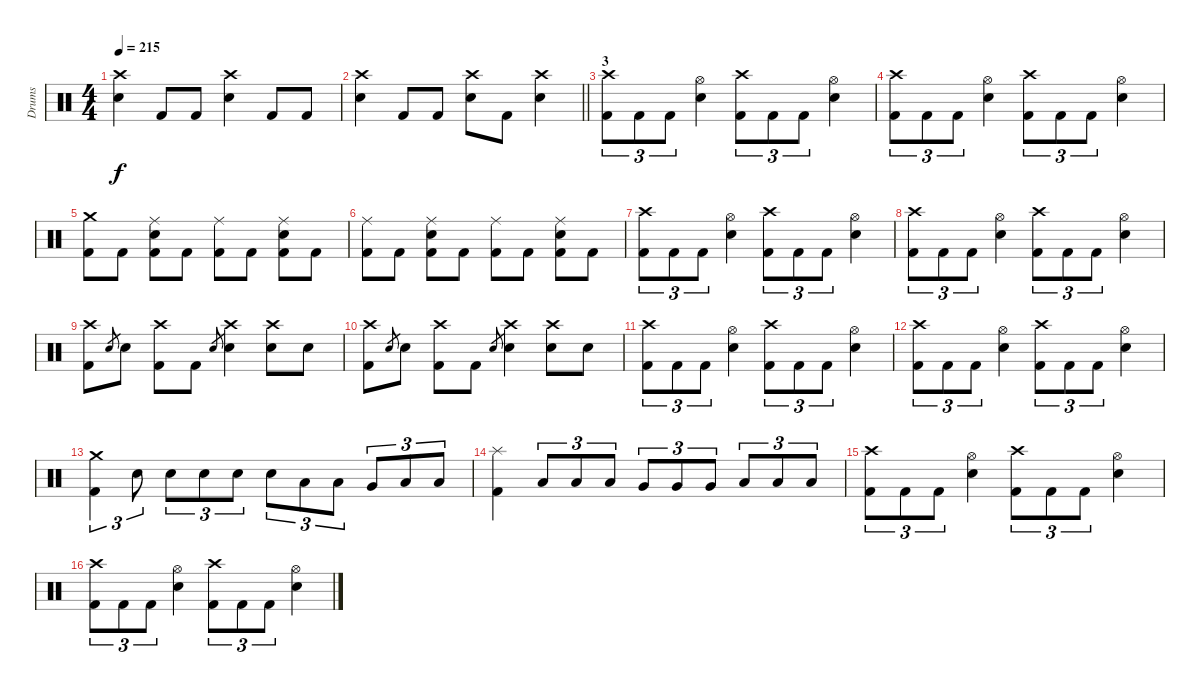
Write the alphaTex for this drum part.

\track ("Drums" "Drums") {instrument percussion}
\staff {score}
\articulation defaults
\ts (4 4)
\tempo 215
\clef neutral
\ks c
("Crash high (hit)" "Electric Snare (hit)").4{dy f} "Kick (hit) 2".8 "Kick (hit) 2".8 ("Crash high (hit)" "Electric Snare (hit)").4 "Kick (hit) 2".8 "Kick (hit) 2".8 |
\barLineRight lightlight
("Crash high (hit)" "Electric Snare (hit)").4 "Kick (hit) 2".8 "Kick (hit) 2".8 ("Crash high (hit)" "Electric Snare (hit)").8 "Kick (hit) 2".8 ("Crash high (hit)" "Electric Snare (hit)").4 |
\section ("" "3")
("Crash high (hit)" "Kick (hit) 2").8{tu (3 2)} "Kick (hit) 2".8{tu (3 2)} "Kick (hit) 2".8{tu (3 2)} ("Hi-Hat (open)" "Electric Snare (hit)").4 ("Crash high (hit)" "Kick (hit) 2").8{tu (3 2)} "Kick (hit) 2".8{tu (3 2)} "Kick (hit) 2".8{tu (3 2)} ("Hi-Hat (open)" "Electric Snare (hit)").4 |
("Crash high (hit)" "Kick (hit) 2").8{tu (3 2)} "Kick (hit) 2".8{tu (3 2)} "Kick (hit) 2".8{tu (3 2)} ("Hi-Hat (open)" "Electric Snare (hit)").4 ("Crash high (hit)" "Kick (hit) 2").8{tu (3 2)} "Kick (hit) 2".8{tu (3 2)} "Kick (hit) 2".8{tu (3 2)} ("Hi-Hat (open)" "Electric Snare (hit)").4 |
("Crash medium (hit)" "Kick (hit) 2").8 "Kick (hit) 2".8 ("Ride (middle)" "Electric Snare (hit)" "Kick (hit) 2").8 "Kick (hit) 2".8 ("Ride (middle)" "Kick (hit) 2").8 "Kick (hit) 2".8 ("Ride (middle)" "Electric Snare (hit)" "Kick (hit) 2").8 "Kick (hit) 2".8 |
("Ride (middle)" "Kick (hit) 2").8 "Kick (hit) 2".8 ("Ride (middle)" "Electric Snare (hit)" "Kick (hit) 2").8 "Kick (hit) 2".8 ("Ride (middle)" "Kick (hit) 2").8 "Kick (hit) 2".8 ("Ride (middle)" "Electric Snare (hit)" "Kick (hit) 2").8 "Kick (hit) 2".8 |
("Crash high (hit)" "Kick (hit) 2").8{tu (3 2)} "Kick (hit) 2".8{tu (3 2)} "Kick (hit) 2".8{tu (3 2)} ("Hi-Hat (open)" "Electric Snare (hit)").4 ("Crash high (hit)" "Kick (hit) 2").8{tu (3 2)} "Kick (hit) 2".8{tu (3 2)} "Kick (hit) 2".8{tu (3 2)} ("Hi-Hat (open)" "Electric Snare (hit)").4 |
("Crash high (hit)" "Kick (hit) 2").8{tu (3 2)} "Kick (hit) 2".8{tu (3 2)} "Kick (hit) 2".8{tu (3 2)} ("Hi-Hat (open)" "Electric Snare (hit)").4 ("Crash high (hit)" "Kick (hit) 2").8{tu (3 2)} "Kick (hit) 2".8{tu (3 2)} "Kick (hit) 2".8{tu (3 2)} ("Hi-Hat (open)" "Electric Snare (hit)").4 |
("Crash high (hit)" "Kick (hit) 2").8 "Electric Snare (hit)".8{gr} "Electric Snare (hit)".8 ("Crash high (hit)" "Kick (hit) 2").8 "Kick (hit) 2".8 "Electric Snare (hit)".8{gr} ("Crash high (hit)" "Electric Snare (hit)").4 ("Crash high (hit)" "Electric Snare (hit)").8 "Electric Snare (hit)".8 |
("Crash high (hit)" "Kick (hit) 2").8 "Electric Snare (hit)".8{gr} "Electric Snare (hit)".8 ("Crash high (hit)" "Kick (hit) 2").8 "Kick (hit) 2".8 "Electric Snare (hit)".8{gr} ("Crash high (hit)" "Electric Snare (hit)").4 ("Crash high (hit)" "Electric Snare (hit)").8 "Electric Snare (hit)".8 |
("Crash high (hit)" "Kick (hit) 2").8{tu (3 2)} "Kick (hit) 2".8{tu (3 2)} "Kick (hit) 2".8{tu (3 2)} ("Hi-Hat (open)" "Electric Snare (hit)").4 ("Crash high (hit)" "Kick (hit) 2").8{tu (3 2)} "Kick (hit) 2".8{tu (3 2)} "Kick (hit) 2".8{tu (3 2)} ("Hi-Hat (open)" "Electric Snare (hit)").4 |
("Crash high (hit)" "Kick (hit) 2").8{tu (3 2)} "Kick (hit) 2".8{tu (3 2)} "Kick (hit) 2".8{tu (3 2)} ("Hi-Hat (open)" "Electric Snare (hit)").4 ("Crash high (hit)" "Kick (hit) 2").8{tu (3 2)} "Kick (hit) 2".8{tu (3 2)} "Kick (hit) 2".8{tu (3 2)} ("Hi-Hat (open)" "Electric Snare (hit)").4 |
("Crash medium (hit)" "Kick (hit) 2").4{tu (3 2)} "Electric Snare (hit)".8{tu (3 2)} "Electric Snare (hit)".8{tu (3 2)} "Electric Snare (hit)".8{tu (3 2)} "Electric Snare (hit)".8{tu (3 2)} "Electric Snare (hit)".8{tu (3 2)} "Low Tom (hit)".8{tu (3 2)} "Low Tom (hit)".8{tu (3 2)} "Very Low Tom (hit)".8{tu (3 2)} "Low Floor Tom (hit)".8{tu (3 2)} "Low Floor Tom (hit)".8{tu (3 2)} |
("Splash (hit)" "Kick (hit) 2").4 "Low Tom (hit)".8{tu (3 2)} "Low Tom (hit)".8{tu (3 2)} "Low Tom (hit)".8{tu (3 2)} "Very Low Tom (hit)".8{tu (3 2)} "Very Low Tom (hit)".8{tu (3 2)} "Very Low Tom (hit)".8{tu (3 2)} "Low Floor Tom (hit)".8{tu (3 2)} "Low Floor Tom (hit)".8{tu (3 2)} "Low Floor Tom (hit)".8{tu (3 2)} |
("Crash high (hit)" "Kick (hit) 2").8{tu (3 2)} "Kick (hit) 2".8{tu (3 2)} "Kick (hit) 2".8{tu (3 2)} ("Hi-Hat (open)" "Electric Snare (hit)").4 ("Crash high (hit)" "Kick (hit) 2").8{tu (3 2)} "Kick (hit) 2".8{tu (3 2)} "Kick (hit) 2".8{tu (3 2)} ("Hi-Hat (open)" "Electric Snare (hit)").4 |
("Crash high (hit)" "Kick (hit) 2").8{tu (3 2)} "Kick (hit) 2".8{tu (3 2)} "Kick (hit) 2".8{tu (3 2)} ("Hi-Hat (open)" "Electric Snare (hit)").4 ("Crash high (hit)" "Kick (hit) 2").8{tu (3 2)} "Kick (hit) 2".8{tu (3 2)} "Kick (hit) 2".8{tu (3 2)} ("Hi-Hat (open)" "Electric Snare (hit)").4
